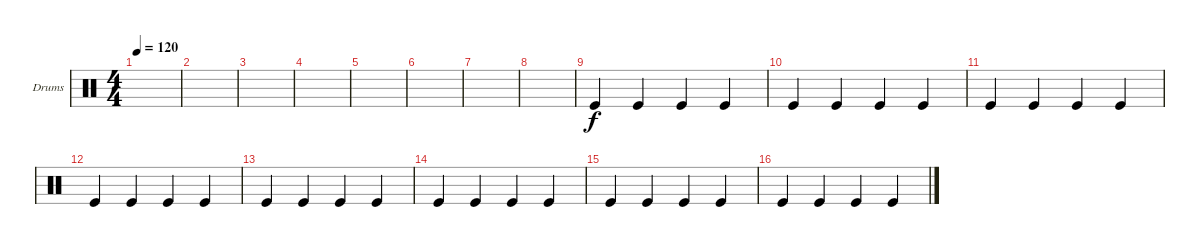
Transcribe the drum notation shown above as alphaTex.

\defaultSystemsLayout 4
\bracketExtendMode groupsimilarinstruments
\firstSystemTrackNameOrientation horizontal
\otherSystemsTrackNameOrientation horizontal
\track ("Drumkit             ( Ударные )" "Drums") {instrument percussion}
\staff {score}
\articulation defaults
\ts (4 4)
\tempo 120
\clef neutral
\scale
0.472222
\ks c
|
\scale
0.263889 |
\scale
0.263889 |
\scale
0.333333 |
\scale
0.333333 |
\scale
0.333333 |
\scale
0.333333 |
\scale
0.333333 |
\scale
0.333333 "Kick (hit)".4 "Kick (hit)".4 "Kick (hit)".4 "Kick (hit)".4 |
\scale
0.333333 "Kick (hit)".4 "Kick (hit)".4 "Kick (hit)".4 "Kick (hit)".4 |
\scale
0.333333 "Kick (hit)".4 "Kick (hit)".4 "Kick (hit)".4 "Kick (hit)".4 |
\scale
0.333333 "Kick (hit)".4 "Kick (hit)".4 "Kick (hit)".4 "Kick (hit)".4 |
\scale
0.333333 "Kick (hit)".4 "Kick (hit)".4 "Kick (hit)".4 "Kick (hit)".4 |
\scale
0.333333 "Kick (hit)".4 "Kick (hit)".4 "Kick (hit)".4 "Kick (hit)".4 |
\scale
0.333333 "Kick (hit)".4 "Kick (hit)".4 "Kick (hit)".4 "Kick (hit)".4 |
\scale
0.333333 "Kick (hit)".4 "Kick (hit)".4 "Kick (hit)".4 "Kick (hit)".4
